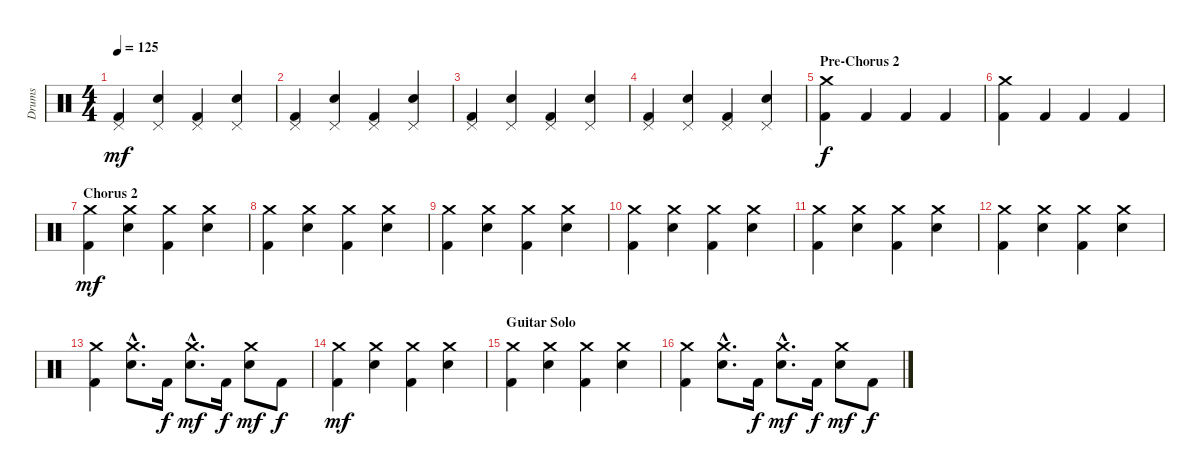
\track ("Drums" "Drums") {instrument percussion}
\staff {score}
\articulation defaults
\ts (4 4)
\tempo 125
\clef neutral
\ks c
("Pedal Hi-Hat (hit)" "Kick (hit) 2").4{dy mf} ("Pedal Hi-Hat (hit)" "Electric Snare (hit)").4 ("Pedal Hi-Hat (hit)" "Kick (hit) 2").4 ("Pedal Hi-Hat (hit)" "Electric Snare (hit)").4 |
("Pedal Hi-Hat (hit)" "Kick (hit) 2").4 ("Pedal Hi-Hat (hit)" "Electric Snare (hit)").4 ("Pedal Hi-Hat (hit)" "Kick (hit) 2").4 ("Pedal Hi-Hat (hit)" "Electric Snare (hit)").4 |
("Pedal Hi-Hat (hit)" "Kick (hit) 2").4 ("Pedal Hi-Hat (hit)" "Electric Snare (hit)").4 ("Pedal Hi-Hat (hit)" "Kick (hit) 2").4 ("Pedal Hi-Hat (hit)" "Electric Snare (hit)").4 |
("Pedal Hi-Hat (hit)" "Kick (hit) 2").4 ("Pedal Hi-Hat (hit)" "Electric Snare (hit)").4 ("Pedal Hi-Hat (hit)" "Kick (hit) 2").4 ("Pedal Hi-Hat (hit)" "Electric Snare (hit)").4 |
\section ("" "Pre-Chorus 2")
("Crash medium (hit)" "Kick (hit) 2").4{dy f} "Kick (hit) 2".4 "Kick (hit) 2".4 "Kick (hit) 2".4 |
("Crash medium (hit)" "Kick (hit) 2").4 "Kick (hit) 2".4 "Kick (hit) 2".4 "Kick (hit) 2".4 |
\section ("" "Chorus 2")
("Crash medium (hit)" "Kick (hit) 2").4{dy mf} ("Crash medium (hit)" "Electric Snare (hit)").4 ("Crash medium (hit)" "Kick (hit) 2").4 ("Crash medium (hit)" "Electric Snare (hit)").4 |
("Crash medium (hit)" "Kick (hit) 2").4 ("Crash medium (hit)" "Electric Snare (hit)").4 ("Crash medium (hit)" "Kick (hit) 2").4 ("Crash medium (hit)" "Electric Snare (hit)").4 |
("Crash medium (hit)" "Kick (hit) 2").4 ("Crash medium (hit)" "Electric Snare (hit)").4 ("Crash medium (hit)" "Kick (hit) 2").4 ("Crash medium (hit)" "Electric Snare (hit)").4 |
("Crash medium (hit)" "Kick (hit) 2").4 ("Crash medium (hit)" "Electric Snare (hit)").4 ("Crash medium (hit)" "Kick (hit) 2").4 ("Crash medium (hit)" "Electric Snare (hit)").4 |
("Crash medium (hit)" "Kick (hit) 2").4 ("Crash medium (hit)" "Electric Snare (hit)").4 ("Crash medium (hit)" "Kick (hit) 2").4 ("Crash medium (hit)" "Electric Snare (hit)").4 |
("Crash medium (hit)" "Kick (hit) 2").4 ("Crash medium (hit)" "Electric Snare (hit)").4 ("Crash medium (hit)" "Kick (hit) 2").4 ("Crash medium (hit)" "Electric Snare (hit)").4 |
("Crash medium (hit)" "Kick (hit) 2").4 ("Crash medium (hit)"{hac} "Electric Snare (hit)"{hac}).8{d} "Kick (hit) 2".16{dy f} ("Crash medium (hit)"{hac} "Electric Snare (hit)"{hac}).8{d dy mf} "Kick (hit) 2".16{dy f} ("Crash medium (hit)" "Electric Snare (hit)").8{dy mf} "Kick (hit) 2".8{dy f} |
("Crash medium (hit)" "Kick (hit) 2").4{dy mf} ("Crash medium (hit)" "Electric Snare (hit)").4 ("Crash medium (hit)" "Kick (hit) 2").4 ("Crash medium (hit)" "Electric Snare (hit)").4 |
\section ("" "Guitar Solo")
("Crash medium (hit)" "Kick (hit) 2").4 ("Crash medium (hit)" "Electric Snare (hit)").4 ("Crash medium (hit)" "Kick (hit) 2").4 ("Crash medium (hit)" "Electric Snare (hit)").4 |
("Crash medium (hit)" "Kick (hit) 2").4 ("Crash medium (hit)"{hac} "Electric Snare (hit)"{hac}).8{d} "Kick (hit) 2".16{dy f} ("Crash medium (hit)"{hac} "Electric Snare (hit)"{hac}).8{d dy mf} "Kick (hit) 2".16{dy f} ("Crash medium (hit)" "Electric Snare (hit)").8{dy mf} "Kick (hit) 2".8{dy f}
